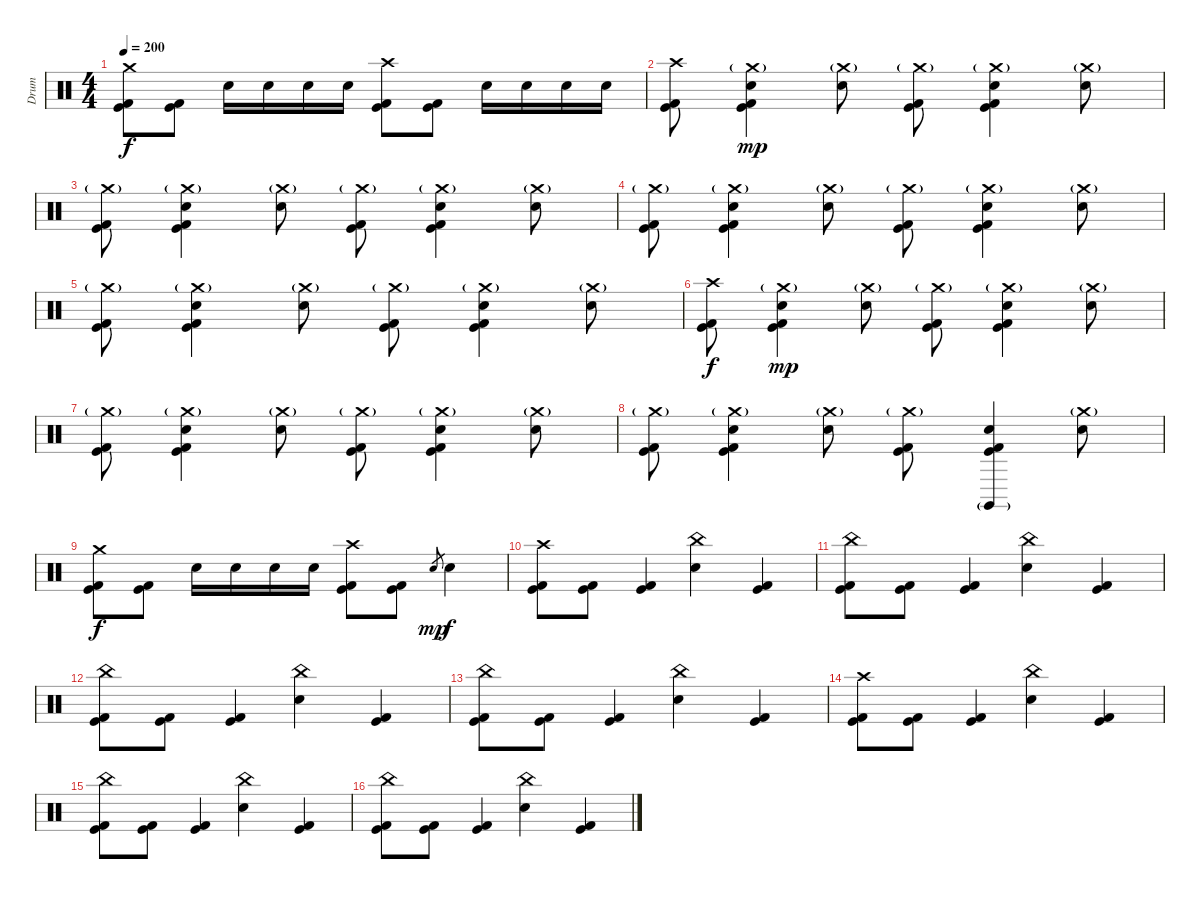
\track ("Drum" "Drum") {instrument percussion}
\staff {score}
\articulation defaults
\ts (4 4)
\tempo 200
\clef neutral
\ks c
("Crash medium (hit)" "Kick (hit)" "Kick (hit) 2").8{dy f} ("Kick (hit)" "Kick (hit) 2").8 "Electric Snare (hit)".16 "Electric Snare (hit)".16 "Electric Snare (hit)".16 "Electric Snare (hit)".16 ("Crash high (hit)" "Kick (hit)" "Kick (hit) 2").8 ("Kick (hit)" "Kick (hit) 2").8 "Electric Snare (hit)".16 "Electric Snare (hit)".16 "Electric Snare (hit)".16 "Electric Snare (hit)".16 |
("Crash high (hit)" "Kick (hit)" "Kick (hit) 2").8 ("Crash medium (hit)"{g} "Electric Snare (hit)" "Kick (hit)" "Kick (hit) 2").4{dy mp} ("Crash medium (hit)"{g} "Electric Snare (hit)").8 ("Crash medium (hit)"{g} "Kick (hit)" "Kick (hit) 2").8 ("Crash medium (hit)"{g} "Electric Snare (hit)" "Kick (hit)" "Kick (hit) 2").4 ("Crash medium (hit)"{g} "Electric Snare (hit)").8 |
("Crash medium (hit)"{g} "Kick (hit)" "Kick (hit) 2").8 ("Crash medium (hit)"{g} "Electric Snare (hit)" "Kick (hit)" "Kick (hit) 2").4 ("Crash medium (hit)"{g} "Electric Snare (hit)").8 ("Crash medium (hit)"{g} "Kick (hit)" "Kick (hit) 2").8 ("Crash medium (hit)"{g} "Electric Snare (hit)" "Kick (hit)" "Kick (hit) 2").4 ("Crash medium (hit)"{g} "Electric Snare (hit)").8 |
("Crash medium (hit)"{g} "Kick (hit)" "Kick (hit) 2").8 ("Crash medium (hit)"{g} "Electric Snare (hit)" "Kick (hit)" "Kick (hit) 2").4 ("Crash medium (hit)"{g} "Electric Snare (hit)").8 ("Crash medium (hit)"{g} "Kick (hit)" "Kick (hit) 2").8 ("Crash medium (hit)"{g} "Electric Snare (hit)" "Kick (hit)" "Kick (hit) 2").4 ("Crash medium (hit)"{g} "Electric Snare (hit)").8 |
("Crash medium (hit)"{g} "Kick (hit)" "Kick (hit) 2").8 ("Crash medium (hit)"{g} "Electric Snare (hit)" "Kick (hit)" "Kick (hit) 2").4 ("Crash medium (hit)"{g} "Electric Snare (hit)").8 ("Crash medium (hit)"{g} "Kick (hit)" "Kick (hit) 2").8 ("Crash medium (hit)"{g} "Electric Snare (hit)" "Kick (hit)" "Kick (hit) 2").4 ("Crash medium (hit)"{g} "Electric Snare (hit)").8 |
("Crash high (hit)" "Kick (hit)" "Kick (hit) 2").8{dy f} ("Crash medium (hit)"{g} "Electric Snare (hit)" "Kick (hit)" "Kick (hit) 2").4{dy mp} ("Crash medium (hit)"{g} "Electric Snare (hit)").8 ("Crash medium (hit)"{g} "Kick (hit)" "Kick (hit) 2").8 ("Crash medium (hit)"{g} "Electric Snare (hit)" "Kick (hit)" "Kick (hit) 2").4 ("Crash medium (hit)"{g} "Electric Snare (hit)").8 |
("Crash medium (hit)"{g} "Kick (hit)" "Kick (hit) 2").8 ("Crash medium (hit)"{g} "Electric Snare (hit)" "Kick (hit)" "Kick (hit) 2").4 ("Crash medium (hit)"{g} "Electric Snare (hit)").8 ("Crash medium (hit)"{g} "Kick (hit)" "Kick (hit) 2").8 ("Crash medium (hit)"{g} "Electric Snare (hit)" "Kick (hit)" "Kick (hit) 2").4 ("Crash medium (hit)"{g} "Electric Snare (hit)").8 |
("Crash medium (hit)"{g} "Kick (hit)" "Kick (hit) 2").8 ("Crash medium (hit)"{g} "Electric Snare (hit)" "Kick (hit)" "Kick (hit) 2").4 ("Crash medium (hit)"{g} "Electric Snare (hit)").8 ("Crash medium (hit)"{g} "Kick (hit)" "Kick (hit) 2").8 ("Claves (hit)"{g} "Electric Snare (hit)" "Kick (hit)" "Kick (hit) 2").4 ("Crash medium (hit)"{g} "Electric Snare (hit)").8 |
("Crash medium (hit)" "Kick (hit)" "Kick (hit) 2").8{dy f} ("Kick (hit)" "Kick (hit) 2").8 "Electric Snare (hit)".16 "Electric Snare (hit)".16 "Electric Snare (hit)".16 "Electric Snare (hit)".16 ("Crash high (hit)" "Kick (hit)" "Kick (hit) 2").8 ("Kick (hit)" "Kick (hit) 2").8 "Electric Snare (hit)".8{gr dy mp} "Electric Snare (hit)".4{dy f} |
("Crash high (hit)" "Kick (hit)" "Kick (hit) 2").8 ("Kick (hit)" "Kick (hit) 2").8 ("Kick (hit)" "Kick (hit) 2").4 ("China (hit)" "Electric Snare (hit)").4 ("Kick (hit)" "Kick (hit) 2").4 |
("China (hit)" "Kick (hit)" "Kick (hit) 2").8 ("Kick (hit)" "Kick (hit) 2").8 ("Kick (hit)" "Kick (hit) 2").4 ("China (hit)" "Electric Snare (hit)").4 ("Kick (hit)" "Kick (hit) 2").4 |
("China (hit)" "Kick (hit)" "Kick (hit) 2").8 ("Kick (hit)" "Kick (hit) 2").8 ("Kick (hit)" "Kick (hit) 2").4 ("China (hit)" "Electric Snare (hit)").4 ("Kick (hit)" "Kick (hit) 2").4 |
("China (hit)" "Kick (hit)" "Kick (hit) 2").8 ("Kick (hit)" "Kick (hit) 2").8 ("Kick (hit)" "Kick (hit) 2").4 ("China (hit)" "Electric Snare (hit)").4 ("Kick (hit)" "Kick (hit) 2").4 |
("Crash high (hit)" "Kick (hit)" "Kick (hit) 2").8 ("Kick (hit)" "Kick (hit) 2").8 ("Kick (hit)" "Kick (hit) 2").4 ("China (hit)" "Electric Snare (hit)").4 ("Kick (hit)" "Kick (hit) 2").4 |
("China (hit)" "Kick (hit)" "Kick (hit) 2").8 ("Kick (hit)" "Kick (hit) 2").8 ("Kick (hit)" "Kick (hit) 2").4 ("China (hit)" "Electric Snare (hit)").4 ("Kick (hit)" "Kick (hit) 2").4 |
("China (hit)" "Kick (hit)" "Kick (hit) 2").8 ("Kick (hit)" "Kick (hit) 2").8 ("Kick (hit)" "Kick (hit) 2").4 ("China (hit)" "Electric Snare (hit)").4 ("Kick (hit)" "Kick (hit) 2").4
